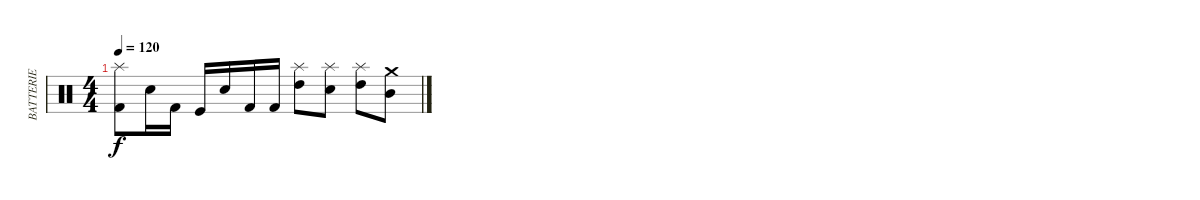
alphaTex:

\track ("BATTERIE" "BATTERIE") {instrument percussion}
\staff {score}
\articulation defaults
\ts (4 4)
\tempo 120
\clef neutral
\ks c
("Splash (hit)" "Kick (hit) 2").8{dy f} "Snare (hit) 2".16 "Kick (hit) 2".16 "Kick (hit)".16 "Snare (hit) 2".16 "Kick (hit) 2".16 "Kick (hit) 2".16 ("Splash (hit)" "High Tom (hit)").8 ("Splash (hit)" "Snare (hit) 2").8 ("Splash (hit)" "High Tom (hit)").8 ("Crash medium (hit)" "Mid Tom (hit)").8
